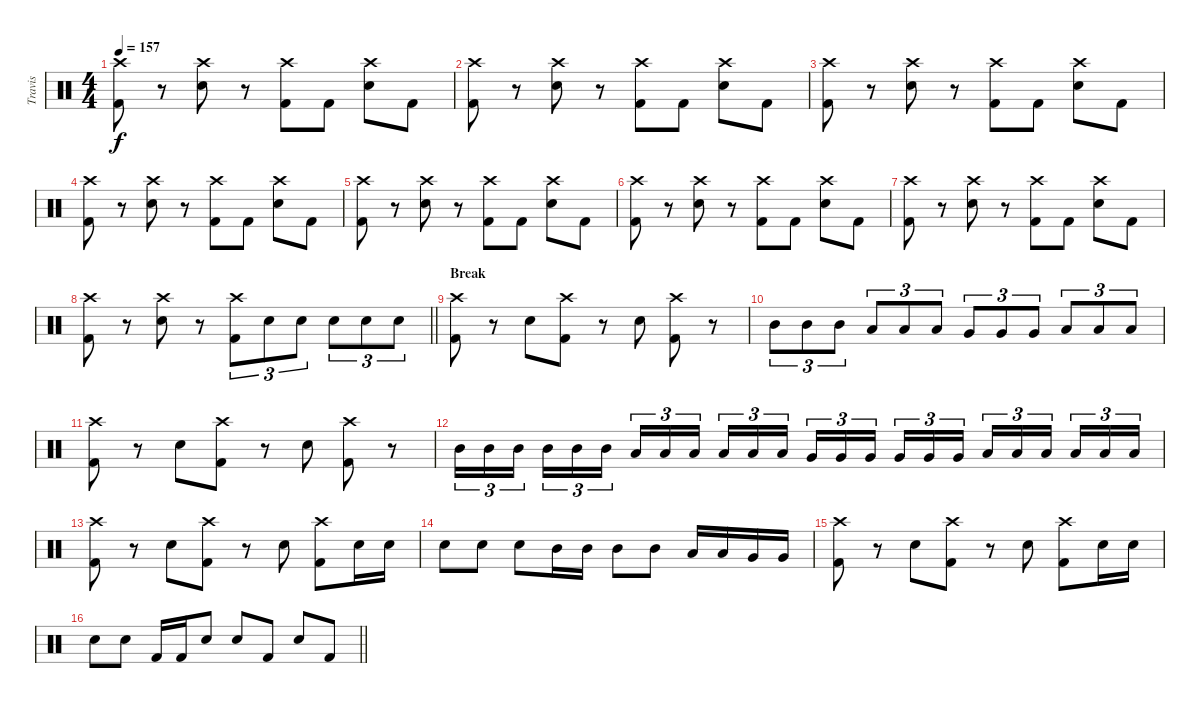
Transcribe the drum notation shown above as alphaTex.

\track ("Travis" "Travis") {instrument percussion}
\staff {score}
\articulation defaults
\ts (4 4)
\tempo 157
\clef neutral
\ks c
("Crash high (hit)" "Kick (hit) 2").8{dy f} r.8 ("Crash high (hit)" "Electric Snare (hit)").8 r.8 ("Crash high (hit)" "Kick (hit) 2").8 "Kick (hit) 2".8 ("Crash high (hit)" "Electric Snare (hit)").8 "Kick (hit) 2".8 |
("Crash high (hit)" "Kick (hit) 2").8 r.8 ("Crash high (hit)" "Electric Snare (hit)").8 r.8 ("Crash high (hit)" "Kick (hit) 2").8 "Kick (hit) 2".8 ("Crash high (hit)" "Electric Snare (hit)").8 "Kick (hit) 2".8 |
("Crash high (hit)" "Kick (hit) 2").8 r.8 ("Crash high (hit)" "Electric Snare (hit)").8 r.8 ("Crash high (hit)" "Kick (hit) 2").8 "Kick (hit) 2".8 ("Crash high (hit)" "Electric Snare (hit)").8 "Kick (hit) 2".8 |
("Crash high (hit)" "Kick (hit) 2").8 r.8 ("Crash high (hit)" "Electric Snare (hit)").8 r.8 ("Crash high (hit)" "Kick (hit) 2").8 "Kick (hit) 2".8 ("Crash high (hit)" "Electric Snare (hit)").8 "Kick (hit) 2".8 |
("Crash high (hit)" "Kick (hit) 2").8 r.8 ("Crash high (hit)" "Electric Snare (hit)").8 r.8 ("Crash high (hit)" "Kick (hit) 2").8 "Kick (hit) 2".8 ("Crash high (hit)" "Electric Snare (hit)").8 "Kick (hit) 2".8 |
("Crash high (hit)" "Kick (hit) 2").8 r.8 ("Crash high (hit)" "Electric Snare (hit)").8 r.8 ("Crash high (hit)" "Kick (hit) 2").8 "Kick (hit) 2".8 ("Crash high (hit)" "Electric Snare (hit)").8 "Kick (hit) 2".8 |
("Crash high (hit)" "Kick (hit) 2").8 r.8 ("Crash high (hit)" "Electric Snare (hit)").8 r.8 ("Crash high (hit)" "Kick (hit) 2").8 "Kick (hit) 2".8 ("Crash high (hit)" "Electric Snare (hit)").8 "Kick (hit) 2".8 |
\barLineRight lightlight
("Crash high (hit)" "Kick (hit) 2").8 r.8 ("Crash high (hit)" "Electric Snare (hit)").8 r.8 ("Crash high (hit)" "Kick (hit) 2").8{tu (3 2)} "Electric Snare (hit)".8{tu (3 2)} "Electric Snare (hit)".8{tu (3 2)} "Electric Snare (hit)".8{tu (3 2)} "Electric Snare (hit)".8{tu (3 2)} "Electric Snare (hit)".8{tu (3 2)} |
\section ("" "Break")
("Crash high (hit)" "Kick (hit) 2").8 r.8 "Electric Snare (hit)".8 ("Crash high (hit)" "Kick (hit) 2").8 r.8 "Electric Snare (hit)".8 ("Crash high (hit)" "Kick (hit) 2").8 r.8 |
"Mid Tom (hit)".8{tu (3 2)} "Mid Tom (hit)".8{tu (3 2)} "Mid Tom (hit)".8{tu (3 2)} "Low Tom (hit)".8{tu (3 2)} "Low Tom (hit)".8{tu (3 2)} "Low Tom (hit)".8{tu (3 2)} "Very Low Tom (hit)".8{tu (3 2)} "Very Low Tom (hit)".8{tu (3 2)} "Very Low Tom (hit)".8{tu (3 2)} "Low Floor Tom (hit)".8{tu (3 2)} "Low Floor Tom (hit)".8{tu (3 2)} "Low Floor Tom (hit)".8{tu (3 2)} |
("Crash high (hit)" "Kick (hit) 2").8 r.8 "Electric Snare (hit)".8 ("Crash high (hit)" "Kick (hit) 2").8 r.8 "Electric Snare (hit)".8 ("Crash high (hit)" "Kick (hit) 2").8 r.8 |
"Mid Tom (hit)".16{tu (3 2)} "Mid Tom (hit)".16{tu (3 2)} "Mid Tom (hit)".16{tu (3 2)} "Mid Tom (hit)".16{tu (3 2)} "Mid Tom (hit)".16{tu (3 2)} "Mid Tom (hit)".16{tu (3 2)} "Low Tom (hit)".16{tu (3 2)} "Low Tom (hit)".16{tu (3 2)} "Low Tom (hit)".16{tu (3 2)} "Low Tom (hit)".16{tu (3 2)} "Low Tom (hit)".16{tu (3 2)} "Low Tom (hit)".16{tu (3 2)} "Very Low Tom (hit)".16{tu (3 2)} "Very Low Tom (hit)".16{tu (3 2)} "Very Low Tom (hit)".16{tu (3 2)} "Very Low Tom (hit)".16{tu (3 2)} "Very Low Tom (hit)".16{tu (3 2)} "Very Low Tom (hit)".16{tu (3 2)} "Low Floor Tom (hit)".16{tu (3 2)} "Low Floor Tom (hit)".16{tu (3 2)} "Low Floor Tom (hit)".16{tu (3 2)} "Low Floor Tom (hit)".16{tu (3 2)} "Low Floor Tom (hit)".16{tu (3 2)} "Low Floor Tom (hit)".16{tu (3 2)} |
("Crash high (hit)" "Kick (hit) 2").8 r.8 "Electric Snare (hit)".8 ("Crash high (hit)" "Kick (hit) 2").8 r.8 "Electric Snare (hit)".8 ("Crash high (hit)" "Kick (hit) 2").8 "Electric Snare (hit)".16 "Electric Snare (hit)".16 |
"Electric Snare (hit)".8 "Electric Snare (hit)".8 "Electric Snare (hit)".8 "Mid Tom (hit)".16 "Mid Tom (hit)".16 "Mid Tom (hit)".8 "Mid Tom (hit)".8 "Low Tom (hit)".16 "Low Tom (hit)".16 "Very Low Tom (hit)".16 "Very Low Tom (hit)".16 |
("Crash high (hit)" "Kick (hit) 2").8 r.8 "Electric Snare (hit)".8 ("Crash high (hit)" "Kick (hit) 2").8 r.8 "Electric Snare (hit)".8 ("Crash high (hit)" "Kick (hit) 2").8 "Electric Snare (hit)".16 "Electric Snare (hit)".16 |
\barLineRight lightlight "Electric Snare (hit)".8 "Electric Snare (hit)".8 "Kick (hit) 2".16 "Kick (hit) 2".16 "Electric Snare (hit)".8 "Electric Snare (hit)".8 "Kick (hit) 2".8 "Electric Snare (hit)".8 "Kick (hit) 2".8
